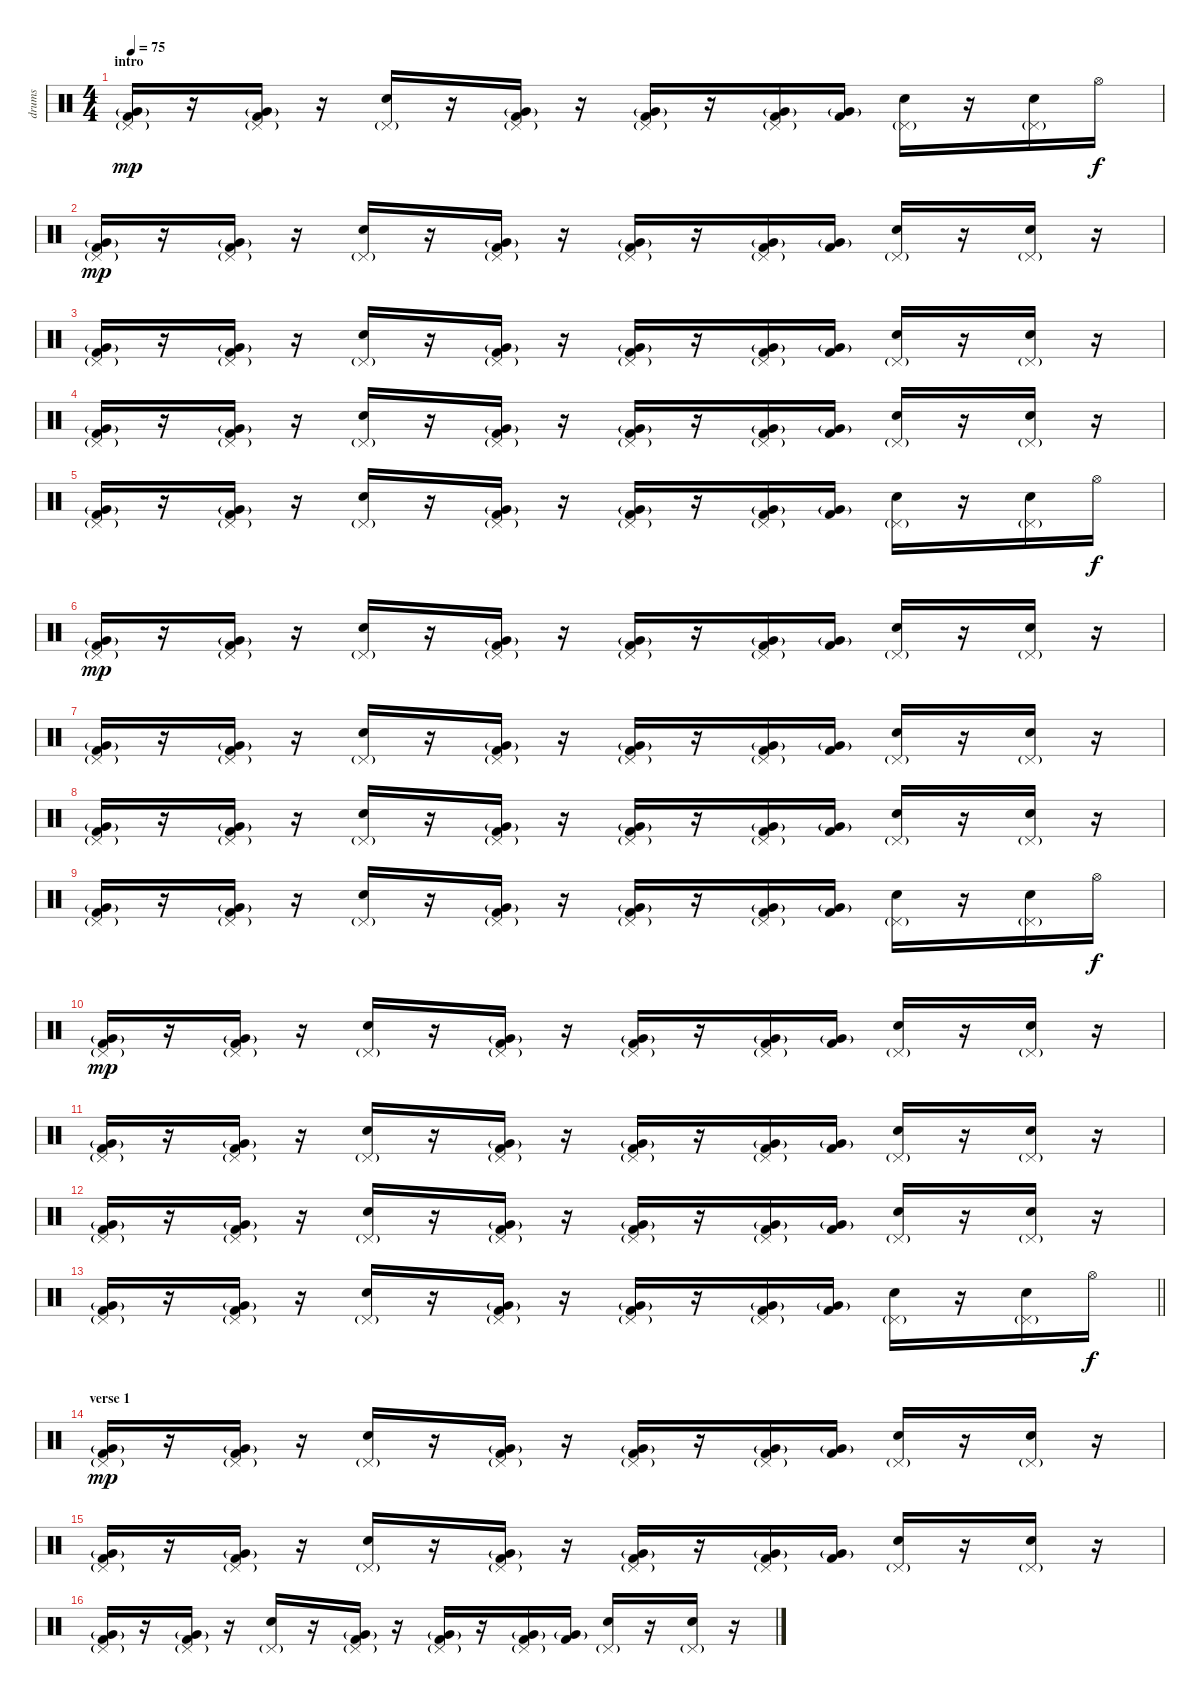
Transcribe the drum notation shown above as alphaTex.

\track ("drums" "drums") {instrument percussion}
\staff {score}
\articulation defaults
\ts (4 4)
\section ("" "intro")
\tempo 75
\clef neutral
\ks c
("Kick (hit) 2" "Very Low Tom (hit)"{g} "Pedal Hi-Hat (hit)"{g}).16{dy mp} r.16 ("Kick (hit) 2" "Very Low Tom (hit)"{g} "Pedal Hi-Hat (hit)"{g}).16 r.16 ("Electric Snare (hit)" "Pedal Hi-Hat (hit)"{g}).16 r.16 ("Kick (hit) 2" "Very Low Tom (hit)"{g} "Pedal Hi-Hat (hit)"{g}).16 r.16 ("Kick (hit) 2" "Very Low Tom (hit)"{g} "Pedal Hi-Hat (hit)"{g}).16 r.16 ("Kick (hit) 2" "Very Low Tom (hit)"{g} "Pedal Hi-Hat (hit)"{g}).16 ("Kick (hit) 2" "Very Low Tom (hit)"{g}).16 ("Electric Snare (hit)" "Pedal Hi-Hat (hit)"{g}).16 r.16 ("Electric Snare (hit)" "Pedal Hi-Hat (hit)"{g}).16 "Hi-Hat (open)".16{dy f} |
("Kick (hit) 2" "Very Low Tom (hit)"{g} "Pedal Hi-Hat (hit)"{g}).16{dy mp} r.16 ("Kick (hit) 2" "Very Low Tom (hit)"{g} "Pedal Hi-Hat (hit)"{g}).16 r.16 ("Electric Snare (hit)" "Pedal Hi-Hat (hit)"{g}).16 r.16 ("Kick (hit) 2" "Very Low Tom (hit)"{g} "Pedal Hi-Hat (hit)"{g}).16 r.16 ("Kick (hit) 2" "Very Low Tom (hit)"{g} "Pedal Hi-Hat (hit)"{g}).16 r.16 ("Kick (hit) 2" "Very Low Tom (hit)"{g} "Pedal Hi-Hat (hit)"{g}).16 ("Kick (hit) 2" "Very Low Tom (hit)"{g}).16 ("Electric Snare (hit)" "Pedal Hi-Hat (hit)"{g}).16 r.16 ("Electric Snare (hit)" "Pedal Hi-Hat (hit)"{g}).16 r.16 |
("Kick (hit) 2" "Very Low Tom (hit)"{g} "Pedal Hi-Hat (hit)"{g}).16 r.16 ("Kick (hit) 2" "Very Low Tom (hit)"{g} "Pedal Hi-Hat (hit)"{g}).16 r.16 ("Electric Snare (hit)" "Pedal Hi-Hat (hit)"{g}).16 r.16 ("Kick (hit) 2" "Very Low Tom (hit)"{g} "Pedal Hi-Hat (hit)"{g}).16 r.16 ("Kick (hit) 2" "Very Low Tom (hit)"{g} "Pedal Hi-Hat (hit)"{g}).16 r.16 ("Kick (hit) 2" "Very Low Tom (hit)"{g} "Pedal Hi-Hat (hit)"{g}).16 ("Kick (hit) 2" "Very Low Tom (hit)"{g}).16 ("Electric Snare (hit)" "Pedal Hi-Hat (hit)"{g}).16 r.16 ("Electric Snare (hit)" "Pedal Hi-Hat (hit)"{g}).16 r.16 |
("Kick (hit) 2" "Very Low Tom (hit)"{g} "Pedal Hi-Hat (hit)"{g}).16 r.16 ("Kick (hit) 2" "Very Low Tom (hit)"{g} "Pedal Hi-Hat (hit)"{g}).16 r.16 ("Electric Snare (hit)" "Pedal Hi-Hat (hit)"{g}).16 r.16 ("Kick (hit) 2" "Very Low Tom (hit)"{g} "Pedal Hi-Hat (hit)"{g}).16 r.16 ("Kick (hit) 2" "Very Low Tom (hit)"{g} "Pedal Hi-Hat (hit)"{g}).16 r.16 ("Kick (hit) 2" "Very Low Tom (hit)"{g} "Pedal Hi-Hat (hit)"{g}).16 ("Kick (hit) 2" "Very Low Tom (hit)"{g}).16 ("Electric Snare (hit)" "Pedal Hi-Hat (hit)"{g}).16 r.16 ("Electric Snare (hit)" "Pedal Hi-Hat (hit)"{g}).16 r.16 |
("Kick (hit) 2" "Very Low Tom (hit)"{g} "Pedal Hi-Hat (hit)"{g}).16 r.16 ("Kick (hit) 2" "Very Low Tom (hit)"{g} "Pedal Hi-Hat (hit)"{g}).16 r.16 ("Electric Snare (hit)" "Pedal Hi-Hat (hit)"{g}).16 r.16 ("Kick (hit) 2" "Very Low Tom (hit)"{g} "Pedal Hi-Hat (hit)"{g}).16 r.16 ("Kick (hit) 2" "Very Low Tom (hit)"{g} "Pedal Hi-Hat (hit)"{g}).16 r.16 ("Kick (hit) 2" "Very Low Tom (hit)"{g} "Pedal Hi-Hat (hit)"{g}).16 ("Kick (hit) 2" "Very Low Tom (hit)"{g}).16 ("Electric Snare (hit)" "Pedal Hi-Hat (hit)"{g}).16 r.16 ("Electric Snare (hit)" "Pedal Hi-Hat (hit)"{g}).16 "Hi-Hat (open)".16{dy f} |
("Kick (hit) 2" "Very Low Tom (hit)"{g} "Pedal Hi-Hat (hit)"{g}).16{dy mp} r.16 ("Kick (hit) 2" "Very Low Tom (hit)"{g} "Pedal Hi-Hat (hit)"{g}).16 r.16 ("Electric Snare (hit)" "Pedal Hi-Hat (hit)"{g}).16 r.16 ("Kick (hit) 2" "Very Low Tom (hit)"{g} "Pedal Hi-Hat (hit)"{g}).16 r.16 ("Kick (hit) 2" "Very Low Tom (hit)"{g} "Pedal Hi-Hat (hit)"{g}).16 r.16 ("Kick (hit) 2" "Very Low Tom (hit)"{g} "Pedal Hi-Hat (hit)"{g}).16 ("Kick (hit) 2" "Very Low Tom (hit)"{g}).16 ("Electric Snare (hit)" "Pedal Hi-Hat (hit)"{g}).16 r.16 ("Electric Snare (hit)" "Pedal Hi-Hat (hit)"{g}).16 r.16 |
("Kick (hit) 2" "Very Low Tom (hit)"{g} "Pedal Hi-Hat (hit)"{g}).16 r.16 ("Kick (hit) 2" "Very Low Tom (hit)"{g} "Pedal Hi-Hat (hit)"{g}).16 r.16 ("Electric Snare (hit)" "Pedal Hi-Hat (hit)"{g}).16 r.16 ("Kick (hit) 2" "Very Low Tom (hit)"{g} "Pedal Hi-Hat (hit)"{g}).16 r.16 ("Kick (hit) 2" "Very Low Tom (hit)"{g} "Pedal Hi-Hat (hit)"{g}).16 r.16 ("Kick (hit) 2" "Very Low Tom (hit)"{g} "Pedal Hi-Hat (hit)"{g}).16 ("Kick (hit) 2" "Very Low Tom (hit)"{g}).16 ("Electric Snare (hit)" "Pedal Hi-Hat (hit)"{g}).16 r.16 ("Electric Snare (hit)" "Pedal Hi-Hat (hit)"{g}).16 r.16 |
("Kick (hit) 2" "Very Low Tom (hit)"{g} "Pedal Hi-Hat (hit)"{g}).16 r.16 ("Kick (hit) 2" "Very Low Tom (hit)"{g} "Pedal Hi-Hat (hit)"{g}).16 r.16 ("Electric Snare (hit)" "Pedal Hi-Hat (hit)"{g}).16 r.16 ("Kick (hit) 2" "Very Low Tom (hit)"{g} "Pedal Hi-Hat (hit)"{g}).16 r.16 ("Kick (hit) 2" "Very Low Tom (hit)"{g} "Pedal Hi-Hat (hit)"{g}).16 r.16 ("Kick (hit) 2" "Very Low Tom (hit)"{g} "Pedal Hi-Hat (hit)"{g}).16 ("Kick (hit) 2" "Very Low Tom (hit)"{g}).16 ("Electric Snare (hit)" "Pedal Hi-Hat (hit)"{g}).16 r.16 ("Electric Snare (hit)" "Pedal Hi-Hat (hit)"{g}).16 r.16 |
("Kick (hit) 2" "Very Low Tom (hit)"{g} "Pedal Hi-Hat (hit)"{g}).16 r.16 ("Kick (hit) 2" "Very Low Tom (hit)"{g} "Pedal Hi-Hat (hit)"{g}).16 r.16 ("Electric Snare (hit)" "Pedal Hi-Hat (hit)"{g}).16 r.16 ("Kick (hit) 2" "Very Low Tom (hit)"{g} "Pedal Hi-Hat (hit)"{g}).16 r.16 ("Kick (hit) 2" "Very Low Tom (hit)"{g} "Pedal Hi-Hat (hit)"{g}).16 r.16 ("Kick (hit) 2" "Very Low Tom (hit)"{g} "Pedal Hi-Hat (hit)"{g}).16 ("Kick (hit) 2" "Very Low Tom (hit)"{g}).16 ("Electric Snare (hit)" "Pedal Hi-Hat (hit)"{g}).16 r.16 ("Electric Snare (hit)" "Pedal Hi-Hat (hit)"{g}).16 "Hi-Hat (open)".16{dy f} |
("Kick (hit) 2" "Very Low Tom (hit)"{g} "Pedal Hi-Hat (hit)"{g}).16{dy mp} r.16 ("Kick (hit) 2" "Very Low Tom (hit)"{g} "Pedal Hi-Hat (hit)"{g}).16 r.16 ("Electric Snare (hit)" "Pedal Hi-Hat (hit)"{g}).16 r.16 ("Kick (hit) 2" "Very Low Tom (hit)"{g} "Pedal Hi-Hat (hit)"{g}).16 r.16 ("Kick (hit) 2" "Very Low Tom (hit)"{g} "Pedal Hi-Hat (hit)"{g}).16 r.16 ("Kick (hit) 2" "Very Low Tom (hit)"{g} "Pedal Hi-Hat (hit)"{g}).16 ("Kick (hit) 2" "Very Low Tom (hit)"{g}).16 ("Electric Snare (hit)" "Pedal Hi-Hat (hit)"{g}).16 r.16 ("Electric Snare (hit)" "Pedal Hi-Hat (hit)"{g}).16 r.16 |
("Kick (hit) 2" "Very Low Tom (hit)"{g} "Pedal Hi-Hat (hit)"{g}).16 r.16 ("Kick (hit) 2" "Very Low Tom (hit)"{g} "Pedal Hi-Hat (hit)"{g}).16 r.16 ("Electric Snare (hit)" "Pedal Hi-Hat (hit)"{g}).16 r.16 ("Kick (hit) 2" "Very Low Tom (hit)"{g} "Pedal Hi-Hat (hit)"{g}).16 r.16 ("Kick (hit) 2" "Very Low Tom (hit)"{g} "Pedal Hi-Hat (hit)"{g}).16 r.16 ("Kick (hit) 2" "Very Low Tom (hit)"{g} "Pedal Hi-Hat (hit)"{g}).16 ("Kick (hit) 2" "Very Low Tom (hit)"{g}).16 ("Electric Snare (hit)" "Pedal Hi-Hat (hit)"{g}).16 r.16 ("Electric Snare (hit)" "Pedal Hi-Hat (hit)"{g}).16 r.16 |
("Kick (hit) 2" "Very Low Tom (hit)"{g} "Pedal Hi-Hat (hit)"{g}).16 r.16 ("Kick (hit) 2" "Very Low Tom (hit)"{g} "Pedal Hi-Hat (hit)"{g}).16 r.16 ("Electric Snare (hit)" "Pedal Hi-Hat (hit)"{g}).16 r.16 ("Kick (hit) 2" "Very Low Tom (hit)"{g} "Pedal Hi-Hat (hit)"{g}).16 r.16 ("Kick (hit) 2" "Very Low Tom (hit)"{g} "Pedal Hi-Hat (hit)"{g}).16 r.16 ("Kick (hit) 2" "Very Low Tom (hit)"{g} "Pedal Hi-Hat (hit)"{g}).16 ("Kick (hit) 2" "Very Low Tom (hit)"{g}).16 ("Electric Snare (hit)" "Pedal Hi-Hat (hit)"{g}).16 r.16 ("Electric Snare (hit)" "Pedal Hi-Hat (hit)"{g}).16 r.16 |
\barLineRight lightlight
("Kick (hit) 2" "Very Low Tom (hit)"{g} "Pedal Hi-Hat (hit)"{g}).16 r.16 ("Kick (hit) 2" "Very Low Tom (hit)"{g} "Pedal Hi-Hat (hit)"{g}).16 r.16 ("Electric Snare (hit)" "Pedal Hi-Hat (hit)"{g}).16 r.16 ("Kick (hit) 2" "Very Low Tom (hit)"{g} "Pedal Hi-Hat (hit)"{g}).16 r.16 ("Kick (hit) 2" "Very Low Tom (hit)"{g} "Pedal Hi-Hat (hit)"{g}).16 r.16 ("Kick (hit) 2" "Very Low Tom (hit)"{g} "Pedal Hi-Hat (hit)"{g}).16 ("Kick (hit) 2" "Very Low Tom (hit)"{g}).16 ("Electric Snare (hit)" "Pedal Hi-Hat (hit)"{g}).16 r.16 ("Electric Snare (hit)" "Pedal Hi-Hat (hit)"{g}).16 "Hi-Hat (open)".16{dy f} |
\section ("" "verse 1")
("Kick (hit) 2" "Very Low Tom (hit)"{g} "Pedal Hi-Hat (hit)"{g}).16{dy mp} r.16 ("Kick (hit) 2" "Very Low Tom (hit)"{g} "Pedal Hi-Hat (hit)"{g}).16 r.16 ("Electric Snare (hit)" "Pedal Hi-Hat (hit)"{g}).16 r.16 ("Kick (hit) 2" "Very Low Tom (hit)"{g} "Pedal Hi-Hat (hit)"{g}).16 r.16 ("Kick (hit) 2" "Very Low Tom (hit)"{g} "Pedal Hi-Hat (hit)"{g}).16 r.16 ("Kick (hit) 2" "Very Low Tom (hit)"{g} "Pedal Hi-Hat (hit)"{g}).16 ("Kick (hit) 2" "Very Low Tom (hit)"{g}).16 ("Electric Snare (hit)" "Pedal Hi-Hat (hit)"{g}).16 r.16 ("Electric Snare (hit)" "Pedal Hi-Hat (hit)"{g}).16 r.16 |
("Kick (hit) 2" "Very Low Tom (hit)"{g} "Pedal Hi-Hat (hit)"{g}).16 r.16 ("Kick (hit) 2" "Very Low Tom (hit)"{g} "Pedal Hi-Hat (hit)"{g}).16 r.16 ("Electric Snare (hit)" "Pedal Hi-Hat (hit)"{g}).16 r.16 ("Kick (hit) 2" "Very Low Tom (hit)"{g} "Pedal Hi-Hat (hit)"{g}).16 r.16 ("Kick (hit) 2" "Very Low Tom (hit)"{g} "Pedal Hi-Hat (hit)"{g}).16 r.16 ("Kick (hit) 2" "Very Low Tom (hit)"{g} "Pedal Hi-Hat (hit)"{g}).16 ("Kick (hit) 2" "Very Low Tom (hit)"{g}).16 ("Electric Snare (hit)" "Pedal Hi-Hat (hit)"{g}).16 r.16 ("Electric Snare (hit)" "Pedal Hi-Hat (hit)"{g}).16 r.16 |
("Kick (hit) 2" "Very Low Tom (hit)"{g} "Pedal Hi-Hat (hit)"{g}).16 r.16 ("Kick (hit) 2" "Very Low Tom (hit)"{g} "Pedal Hi-Hat (hit)"{g}).16 r.16 ("Electric Snare (hit)" "Pedal Hi-Hat (hit)"{g}).16 r.16 ("Kick (hit) 2" "Very Low Tom (hit)"{g} "Pedal Hi-Hat (hit)"{g}).16 r.16 ("Kick (hit) 2" "Very Low Tom (hit)"{g} "Pedal Hi-Hat (hit)"{g}).16 r.16 ("Kick (hit) 2" "Very Low Tom (hit)"{g} "Pedal Hi-Hat (hit)"{g}).16 ("Kick (hit) 2" "Very Low Tom (hit)"{g}).16 ("Electric Snare (hit)" "Pedal Hi-Hat (hit)"{g}).16 r.16 ("Electric Snare (hit)" "Pedal Hi-Hat (hit)"{g}).16 r.16
